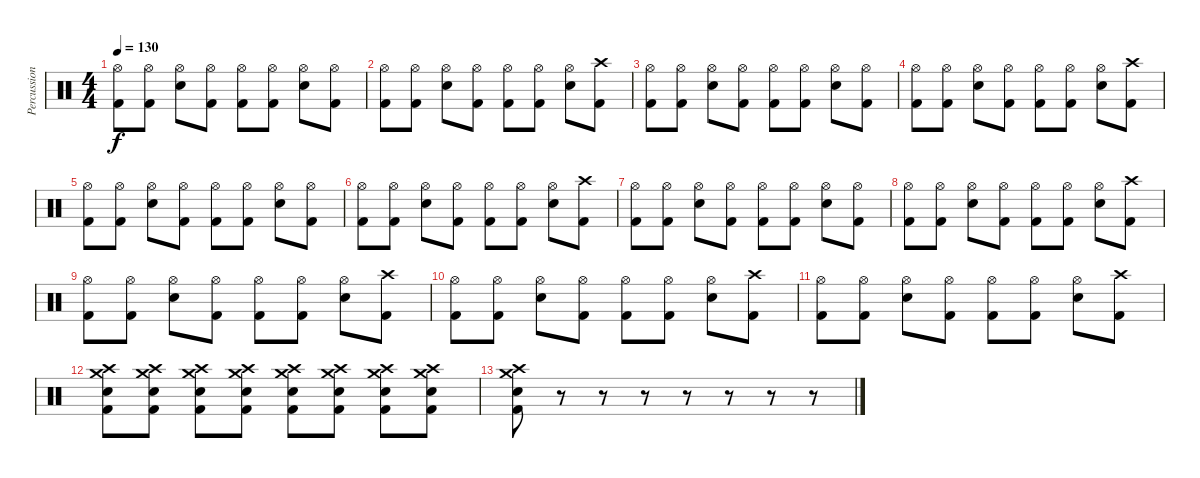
\track ("Percussion" "Percussion") {instrument percussion}
\staff {score}
\articulation defaults
\ts (4 4)
\tempo 130
\clef neutral
\ks c
("Hi-Hat (open)" "Kick (hit) 2").8{dy f} ("Hi-Hat (open)" "Kick (hit) 2").8 ("Hi-Hat (open)" "Electric Snare (hit)").8 ("Hi-Hat (open)" "Kick (hit) 2").8 ("Hi-Hat (open)" "Kick (hit) 2").8 ("Hi-Hat (open)" "Kick (hit) 2").8 ("Hi-Hat (open)" "Electric Snare (hit)").8 ("Hi-Hat (open)" "Kick (hit) 2").8 |
("Hi-Hat (open)" "Kick (hit) 2").8 ("Hi-Hat (open)" "Kick (hit) 2").8 ("Hi-Hat (open)" "Electric Snare (hit)").8 ("Hi-Hat (open)" "Kick (hit) 2").8 ("Hi-Hat (open)" "Kick (hit) 2").8 ("Hi-Hat (open)" "Kick (hit) 2").8 ("Hi-Hat (open)" "Electric Snare (hit)").8 ("Crash high (hit)" "Kick (hit) 2").8 |
("Hi-Hat (open)" "Kick (hit) 2").8 ("Hi-Hat (open)" "Kick (hit) 2").8 ("Hi-Hat (open)" "Electric Snare (hit)").8 ("Hi-Hat (open)" "Kick (hit) 2").8 ("Hi-Hat (open)" "Kick (hit) 2").8 ("Hi-Hat (open)" "Kick (hit) 2").8 ("Hi-Hat (open)" "Electric Snare (hit)").8 ("Hi-Hat (open)" "Kick (hit) 2").8 |
("Hi-Hat (open)" "Kick (hit) 2").8 ("Hi-Hat (open)" "Kick (hit) 2").8 ("Hi-Hat (open)" "Electric Snare (hit)").8 ("Hi-Hat (open)" "Kick (hit) 2").8 ("Hi-Hat (open)" "Kick (hit) 2").8 ("Hi-Hat (open)" "Kick (hit) 2").8 ("Hi-Hat (open)" "Electric Snare (hit)").8 ("Crash high (hit)" "Kick (hit) 2").8 |
("Hi-Hat (open)" "Kick (hit) 2").8 ("Hi-Hat (open)" "Kick (hit) 2").8 ("Hi-Hat (open)" "Electric Snare (hit)").8 ("Hi-Hat (open)" "Kick (hit) 2").8 ("Hi-Hat (open)" "Kick (hit) 2").8 ("Hi-Hat (open)" "Kick (hit) 2").8 ("Hi-Hat (open)" "Electric Snare (hit)").8 ("Hi-Hat (open)" "Kick (hit) 2").8 |
("Hi-Hat (open)" "Kick (hit) 2").8 ("Hi-Hat (open)" "Kick (hit) 2").8 ("Hi-Hat (open)" "Electric Snare (hit)").8 ("Hi-Hat (open)" "Kick (hit) 2").8 ("Hi-Hat (open)" "Kick (hit) 2").8 ("Hi-Hat (open)" "Kick (hit) 2").8 ("Hi-Hat (open)" "Electric Snare (hit)").8 ("Crash high (hit)" "Kick (hit) 2").8 |
("Hi-Hat (open)" "Kick (hit) 2").8 ("Hi-Hat (open)" "Kick (hit) 2").8 ("Hi-Hat (open)" "Electric Snare (hit)").8 ("Hi-Hat (open)" "Kick (hit) 2").8 ("Hi-Hat (open)" "Kick (hit) 2").8 ("Hi-Hat (open)" "Kick (hit) 2").8 ("Hi-Hat (open)" "Electric Snare (hit)").8 ("Hi-Hat (open)" "Kick (hit) 2").8 |
("Hi-Hat (open)" "Kick (hit) 2").8 ("Hi-Hat (open)" "Kick (hit) 2").8 ("Hi-Hat (open)" "Electric Snare (hit)").8 ("Hi-Hat (open)" "Kick (hit) 2").8 ("Hi-Hat (open)" "Kick (hit) 2").8 ("Hi-Hat (open)" "Kick (hit) 2").8 ("Hi-Hat (open)" "Electric Snare (hit)").8 ("Crash high (hit)" "Kick (hit) 2").8 |
("Hi-Hat (open)" "Kick (hit) 2").8 ("Hi-Hat (open)" "Kick (hit) 2").8 ("Hi-Hat (open)" "Electric Snare (hit)").8 ("Hi-Hat (open)" "Kick (hit) 2").8 ("Hi-Hat (open)" "Kick (hit) 2").8 ("Hi-Hat (open)" "Kick (hit) 2").8 ("Hi-Hat (open)" "Electric Snare (hit)").8 ("Crash high (hit)" "Kick (hit) 2").8 |
("Hi-Hat (open)" "Kick (hit) 2").8 ("Hi-Hat (open)" "Kick (hit) 2").8 ("Hi-Hat (open)" "Electric Snare (hit)").8 ("Hi-Hat (open)" "Kick (hit) 2").8 ("Hi-Hat (open)" "Kick (hit) 2").8 ("Hi-Hat (open)" "Kick (hit) 2").8 ("Hi-Hat (open)" "Electric Snare (hit)").8 ("Crash high (hit)" "Kick (hit) 2").8 |
("Hi-Hat (open)" "Kick (hit) 2").8 ("Hi-Hat (open)" "Kick (hit) 2").8 ("Hi-Hat (open)" "Electric Snare (hit)").8 ("Hi-Hat (open)" "Kick (hit) 2").8 ("Hi-Hat (open)" "Kick (hit) 2").8 ("Hi-Hat (open)" "Kick (hit) 2").8 ("Hi-Hat (open)" "Electric Snare (hit)").8 ("Crash high (hit)" "Kick (hit) 2").8 |
("Crash medium (hit)" "Crash high (hit)" "Electric Snare (hit)" "Kick (hit) 2").8{volume 5} ("Crash medium (hit)" "Crash high (hit)" "Electric Snare (hit)" "Kick (hit) 2").8 ("Crash medium (hit)" "Crash high (hit)" "Electric Snare (hit)" "Kick (hit) 2").8 ("Crash medium (hit)" "Crash high (hit)" "Electric Snare (hit)" "Kick (hit) 2").8 ("Crash medium (hit)" "Crash high (hit)" "Electric Snare (hit)" "Kick (hit) 2").8 ("Crash medium (hit)" "Crash high (hit)" "Electric Snare (hit)" "Kick (hit) 2").8 ("Crash medium (hit)" "Crash high (hit)" "Electric Snare (hit)" "Kick (hit) 2").8 ("Crash medium (hit)" "Crash high (hit)" "Electric Snare (hit)" "Kick (hit) 2").8 |
("Crash medium (hit)" "Crash high (hit)" "Electric Snare (hit)" "Kick (hit) 2").8 r.8 r.8 r.8 r.8 r.8 r.8 r.8
